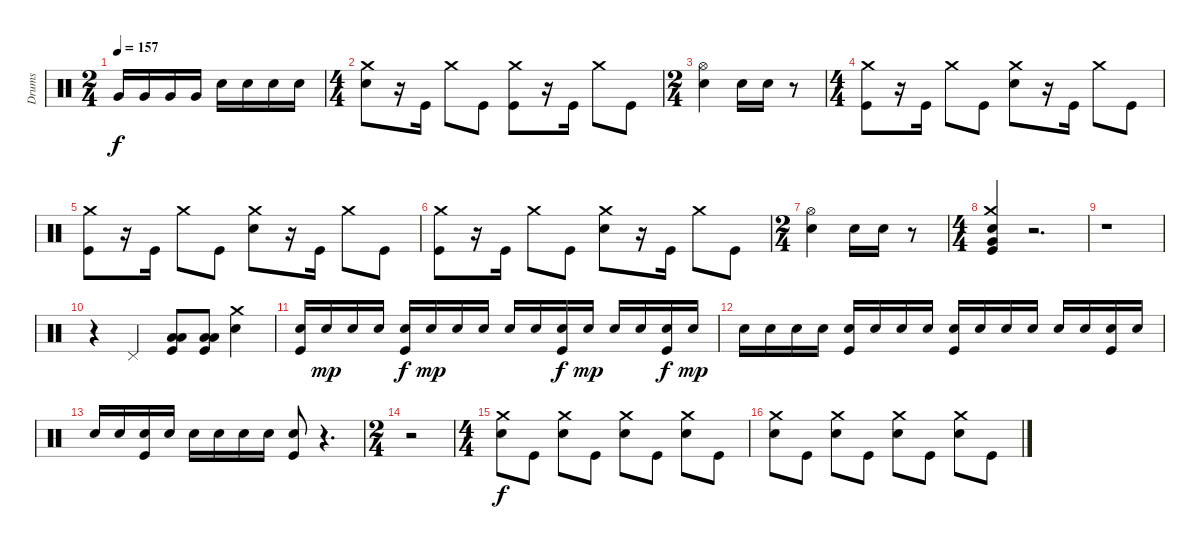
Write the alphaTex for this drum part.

\track ("Drums" "Drums") {instrument percussion}
\staff {score}
\articulation defaults
\ts (2 4)
\tempo 157
\clef neutral
\ks c "Very Low Tom (hit)".16{dy f} "Very Low Tom (hit)".16 "Very Low Tom (hit)".16 "Very Low Tom (hit)".16 "Electric Snare (hit)".16 "Electric Snare (hit)".16 "Electric Snare (hit)".16 "Electric Snare (hit)".16
|
\ts (4 4)
("Crash medium (hit)" "Electric Snare (hit)").8 r.16 "Kick (hit)".16 "Crash medium (hit)".8 "Kick (hit)".8 ("Crash medium (hit)" "Kick (hit)").8 r.16 "Kick (hit)".16 "Crash medium (hit)".8 "Kick (hit)".8 |
\ts (2 4)
("Hi-Hat (open)" "Electric Snare (hit)").4 "Electric Snare (hit)".16 "Electric Snare (hit)".16 r.8 |
\ts (4 4)
("Crash medium (hit)" "Kick (hit)").8 r.16 "Kick (hit)".16 "Crash medium (hit)".8 "Kick (hit)".8 ("Crash medium (hit)" "Electric Snare (hit)").8 r.16 "Kick (hit)".16 "Crash medium (hit)".8 "Kick (hit)".8 |
("Crash medium (hit)" "Kick (hit)").8 r.16 "Kick (hit)".16 "Crash medium (hit)".8 "Kick (hit)".8 ("Crash medium (hit)" "Electric Snare (hit)").8 r.16 "Kick (hit)".16 "Crash medium (hit)".8 "Kick (hit)".8 |
("Crash medium (hit)" "Kick (hit)").8 r.16 "Kick (hit)".16 "Crash medium (hit)".8 "Kick (hit)".8 ("Crash medium (hit)" "Electric Snare (hit)").8 r.16 "Kick (hit)".16 "Crash medium (hit)".8 "Kick (hit)".8 |
\ts (2 4)
("Hi-Hat (open)" "Electric Snare (hit)").4 "Electric Snare (hit)".16 "Electric Snare (hit)".16 r.8 |
\ts (4 4)
("Crash medium (hit)" "Very Low Tom (hit)" "Electric Snare (hit)" "Kick (hit)").4 r.2{d} |
r.1 |
r.4 "Pedal Hi-Hat (hit)".4 ("Low Floor Tom (hit)" "Low Tom (hit)" "Kick (hit)").8 ("Low Floor Tom (hit)" "Low Tom (hit)" "Kick (hit)").8 ("Crash medium (hit)" "Electric Snare (hit)").4 |
("Electric Snare (hit)" "Kick (hit)").16 "Electric Snare (hit)".16{dy mp} "Electric Snare (hit)".16 "Electric Snare (hit)".16 ("Electric Snare (hit)" "Kick (hit)").16{dy f} "Electric Snare (hit)".16{dy mp} "Electric Snare (hit)".16 "Electric Snare (hit)".16 "Electric Snare (hit)".16 "Electric Snare (hit)".16 ("Electric Snare (hit)" "Kick (hit)").16{dy f} "Electric Snare (hit)".16{dy mp} "Electric Snare (hit)".16 "Electric Snare (hit)".16 ("Electric Snare (hit)" "Kick (hit)").16{dy f} "Electric Snare (hit)".16{dy mp} |
"Electric Snare (hit)".16 "Electric Snare (hit)".16 "Electric Snare (hit)".16 "Electric Snare (hit)".16 ("Electric Snare (hit)" "Kick (hit)").16 "Electric Snare (hit)".16 "Electric Snare (hit)".16 "Electric Snare (hit)".16 ("Electric Snare (hit)" "Kick (hit)").16 "Electric Snare (hit)".16 "Electric Snare (hit)".16 "Electric Snare (hit)".16 "Electric Snare (hit)".16 "Electric Snare (hit)".16 ("Electric Snare (hit)" "Kick (hit)").16 "Electric Snare (hit)".16 |
"Electric Snare (hit)".16 "Electric Snare (hit)".16 ("Electric Snare (hit)" "Kick (hit)").16 "Electric Snare (hit)".16 "Electric Snare (hit)".16 "Electric Snare (hit)".16 "Electric Snare (hit)".16 "Electric Snare (hit)".16 ("Electric Snare (hit)" "Kick (hit)").8 r.4{d} |
\ts (2 4)
r.2 |
\ts (4 4)
("Crash medium (hit)" "Electric Snare (hit)").8{dy f} "Kick (hit)".8 ("Crash medium (hit)" "Electric Snare (hit)").8 "Kick (hit)".8 ("Crash medium (hit)" "Electric Snare (hit)").8 "Kick (hit)".8 ("Crash medium (hit)" "Electric Snare (hit)").8 "Kick (hit)".8 |
("Crash medium (hit)" "Electric Snare (hit)").8 "Kick (hit)".8 ("Crash medium (hit)" "Electric Snare (hit)").8 "Kick (hit)".8 ("Crash medium (hit)" "Electric Snare (hit)").8 "Kick (hit)".8 ("Crash medium (hit)" "Electric Snare (hit)").8 "Kick (hit)".8
